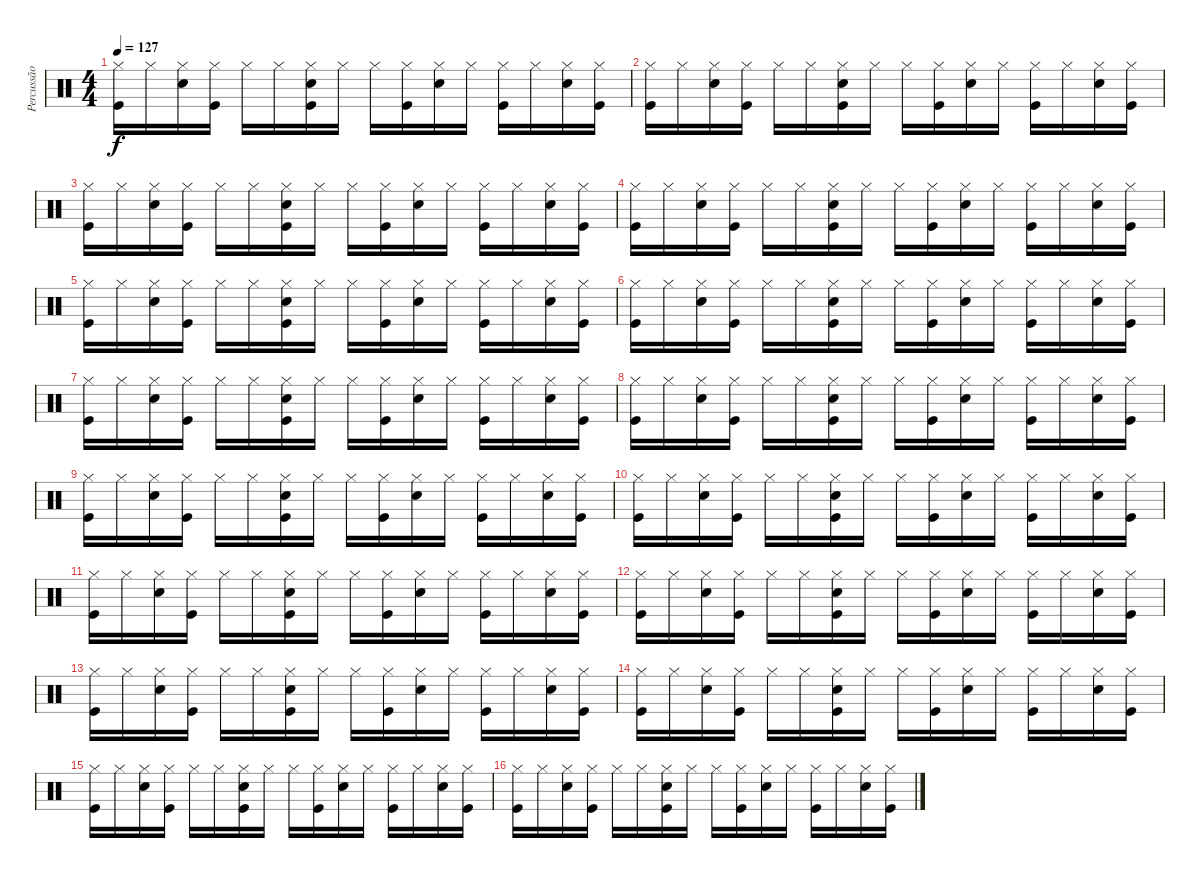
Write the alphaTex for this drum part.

\track ("Percussão" "Percussão") {instrument percussion}
\staff {score}
\articulation defaults
\ts (4 4)
\tempo 127
\clef neutral
\ks c
("Kick (hit)" "Hi-Hat (closed)").16{dy f} "Hi-Hat (closed)".16 ("Hi-Hat (closed)" "Snare (hit) 2").16 ("Kick (hit)" "Hi-Hat (closed)").16 "Hi-Hat (closed)".16 "Hi-Hat (closed)".16 ("Kick (hit)" "Hi-Hat (closed)" "Snare (hit) 2").16 "Hi-Hat (closed)".16 "Hi-Hat (closed)".16 ("Kick (hit)" "Hi-Hat (closed)").16 ("Hi-Hat (closed)" "Snare (hit) 2").16 "Hi-Hat (closed)".16 ("Kick (hit)" "Hi-Hat (closed)").16 "Hi-Hat (closed)".16 ("Hi-Hat (closed)" "Snare (hit) 2").16 ("Kick (hit)" "Hi-Hat (closed)").16 |
("Kick (hit)" "Hi-Hat (closed)").16 "Hi-Hat (closed)".16 ("Hi-Hat (closed)" "Snare (hit) 2").16 ("Kick (hit)" "Hi-Hat (closed)").16 "Hi-Hat (closed)".16 "Hi-Hat (closed)".16 ("Kick (hit)" "Hi-Hat (closed)" "Snare (hit) 2").16 "Hi-Hat (closed)".16 "Hi-Hat (closed)".16 ("Kick (hit)" "Hi-Hat (closed)").16 ("Hi-Hat (closed)" "Snare (hit) 2").16 "Hi-Hat (closed)".16 ("Kick (hit)" "Hi-Hat (closed)").16 "Hi-Hat (closed)".16 ("Hi-Hat (closed)" "Snare (hit) 2").16 ("Kick (hit)" "Hi-Hat (closed)").16 |
("Kick (hit)" "Hi-Hat (closed)").16 "Hi-Hat (closed)".16 ("Hi-Hat (closed)" "Snare (hit) 2").16 ("Kick (hit)" "Hi-Hat (closed)").16 "Hi-Hat (closed)".16 "Hi-Hat (closed)".16 ("Kick (hit)" "Hi-Hat (closed)" "Snare (hit) 2").16 "Hi-Hat (closed)".16 "Hi-Hat (closed)".16 ("Kick (hit)" "Hi-Hat (closed)").16 ("Hi-Hat (closed)" "Snare (hit) 2").16 "Hi-Hat (closed)".16 ("Kick (hit)" "Hi-Hat (closed)").16 "Hi-Hat (closed)".16 ("Hi-Hat (closed)" "Snare (hit) 2").16 ("Kick (hit)" "Hi-Hat (closed)").16 |
("Kick (hit)" "Hi-Hat (closed)").16 "Hi-Hat (closed)".16 ("Hi-Hat (closed)" "Snare (hit) 2").16 ("Kick (hit)" "Hi-Hat (closed)").16 "Hi-Hat (closed)".16 "Hi-Hat (closed)".16 ("Kick (hit)" "Hi-Hat (closed)" "Snare (hit) 2").16 "Hi-Hat (closed)".16 "Hi-Hat (closed)".16 ("Kick (hit)" "Hi-Hat (closed)").16 ("Hi-Hat (closed)" "Snare (hit) 2").16 "Hi-Hat (closed)".16 ("Kick (hit)" "Hi-Hat (closed)").16 "Hi-Hat (closed)".16 ("Hi-Hat (closed)" "Snare (hit) 2").16 ("Kick (hit)" "Hi-Hat (closed)").16 |
("Kick (hit)" "Hi-Hat (closed)").16 "Hi-Hat (closed)".16 ("Hi-Hat (closed)" "Snare (hit) 2").16 ("Kick (hit)" "Hi-Hat (closed)").16 "Hi-Hat (closed)".16 "Hi-Hat (closed)".16 ("Kick (hit)" "Hi-Hat (closed)" "Snare (hit) 2").16 "Hi-Hat (closed)".16 "Hi-Hat (closed)".16 ("Kick (hit)" "Hi-Hat (closed)").16 ("Hi-Hat (closed)" "Snare (hit) 2").16 "Hi-Hat (closed)".16 ("Kick (hit)" "Hi-Hat (closed)").16 "Hi-Hat (closed)".16 ("Hi-Hat (closed)" "Snare (hit) 2").16 ("Kick (hit)" "Hi-Hat (closed)").16 |
("Kick (hit)" "Hi-Hat (closed)").16 "Hi-Hat (closed)".16 ("Hi-Hat (closed)" "Snare (hit) 2").16 ("Kick (hit)" "Hi-Hat (closed)").16 "Hi-Hat (closed)".16 "Hi-Hat (closed)".16 ("Kick (hit)" "Hi-Hat (closed)" "Snare (hit) 2").16 "Hi-Hat (closed)".16 "Hi-Hat (closed)".16 ("Kick (hit)" "Hi-Hat (closed)").16 ("Hi-Hat (closed)" "Snare (hit) 2").16 "Hi-Hat (closed)".16 ("Kick (hit)" "Hi-Hat (closed)").16 "Hi-Hat (closed)".16 ("Hi-Hat (closed)" "Snare (hit) 2").16 ("Kick (hit)" "Hi-Hat (closed)").16 |
("Kick (hit)" "Hi-Hat (closed)").16 "Hi-Hat (closed)".16 ("Hi-Hat (closed)" "Snare (hit) 2").16 ("Kick (hit)" "Hi-Hat (closed)").16 "Hi-Hat (closed)".16 "Hi-Hat (closed)".16 ("Kick (hit)" "Hi-Hat (closed)" "Snare (hit) 2").16 "Hi-Hat (closed)".16 "Hi-Hat (closed)".16 ("Kick (hit)" "Hi-Hat (closed)").16 ("Hi-Hat (closed)" "Snare (hit) 2").16 "Hi-Hat (closed)".16 ("Kick (hit)" "Hi-Hat (closed)").16 "Hi-Hat (closed)".16 ("Hi-Hat (closed)" "Snare (hit) 2").16 ("Kick (hit)" "Hi-Hat (closed)").16 |
("Kick (hit)" "Hi-Hat (closed)").16 "Hi-Hat (closed)".16 ("Hi-Hat (closed)" "Snare (hit) 2").16 ("Kick (hit)" "Hi-Hat (closed)").16 "Hi-Hat (closed)".16 "Hi-Hat (closed)".16 ("Kick (hit)" "Hi-Hat (closed)" "Snare (hit) 2").16 "Hi-Hat (closed)".16 "Hi-Hat (closed)".16 ("Kick (hit)" "Hi-Hat (closed)").16 ("Hi-Hat (closed)" "Snare (hit) 2").16 "Hi-Hat (closed)".16 ("Kick (hit)" "Hi-Hat (closed)").16 "Hi-Hat (closed)".16 ("Hi-Hat (closed)" "Snare (hit) 2").16 ("Kick (hit)" "Hi-Hat (closed)").16 |
("Kick (hit)" "Hi-Hat (closed)").16 "Hi-Hat (closed)".16 ("Hi-Hat (closed)" "Snare (hit) 2").16 ("Kick (hit)" "Hi-Hat (closed)").16 "Hi-Hat (closed)".16 "Hi-Hat (closed)".16 ("Kick (hit)" "Hi-Hat (closed)" "Snare (hit) 2").16 "Hi-Hat (closed)".16 "Hi-Hat (closed)".16 ("Kick (hit)" "Hi-Hat (closed)").16 ("Hi-Hat (closed)" "Snare (hit) 2").16 "Hi-Hat (closed)".16 ("Kick (hit)" "Hi-Hat (closed)").16 "Hi-Hat (closed)".16 ("Hi-Hat (closed)" "Snare (hit) 2").16 ("Kick (hit)" "Hi-Hat (closed)").16 |
("Kick (hit)" "Hi-Hat (closed)").16 "Hi-Hat (closed)".16 ("Hi-Hat (closed)" "Snare (hit) 2").16 ("Kick (hit)" "Hi-Hat (closed)").16 "Hi-Hat (closed)".16 "Hi-Hat (closed)".16 ("Kick (hit)" "Hi-Hat (closed)" "Snare (hit) 2").16 "Hi-Hat (closed)".16 "Hi-Hat (closed)".16 ("Kick (hit)" "Hi-Hat (closed)").16 ("Hi-Hat (closed)" "Snare (hit) 2").16 "Hi-Hat (closed)".16 ("Kick (hit)" "Hi-Hat (closed)").16 "Hi-Hat (closed)".16 ("Hi-Hat (closed)" "Snare (hit) 2").16 ("Kick (hit)" "Hi-Hat (closed)").16 |
("Kick (hit)" "Hi-Hat (closed)").16 "Hi-Hat (closed)".16 ("Hi-Hat (closed)" "Snare (hit) 2").16 ("Kick (hit)" "Hi-Hat (closed)").16 "Hi-Hat (closed)".16 "Hi-Hat (closed)".16 ("Kick (hit)" "Hi-Hat (closed)" "Snare (hit) 2").16 "Hi-Hat (closed)".16 "Hi-Hat (closed)".16 ("Kick (hit)" "Hi-Hat (closed)").16 ("Hi-Hat (closed)" "Snare (hit) 2").16 "Hi-Hat (closed)".16 ("Kick (hit)" "Hi-Hat (closed)").16 "Hi-Hat (closed)".16 ("Hi-Hat (closed)" "Snare (hit) 2").16 ("Kick (hit)" "Hi-Hat (closed)").16 |
("Kick (hit)" "Hi-Hat (closed)").16 "Hi-Hat (closed)".16 ("Hi-Hat (closed)" "Snare (hit) 2").16 ("Kick (hit)" "Hi-Hat (closed)").16 "Hi-Hat (closed)".16 "Hi-Hat (closed)".16 ("Kick (hit)" "Hi-Hat (closed)" "Snare (hit) 2").16 "Hi-Hat (closed)".16 "Hi-Hat (closed)".16 ("Kick (hit)" "Hi-Hat (closed)").16 ("Hi-Hat (closed)" "Snare (hit) 2").16 "Hi-Hat (closed)".16 ("Kick (hit)" "Hi-Hat (closed)").16 "Hi-Hat (closed)".16 ("Hi-Hat (closed)" "Snare (hit) 2").16 ("Kick (hit)" "Hi-Hat (closed)").16 |
("Kick (hit)" "Hi-Hat (closed)").16 "Hi-Hat (closed)".16 ("Hi-Hat (closed)" "Snare (hit) 2").16 ("Kick (hit)" "Hi-Hat (closed)").16 "Hi-Hat (closed)".16 "Hi-Hat (closed)".16 ("Kick (hit)" "Hi-Hat (closed)" "Snare (hit) 2").16 "Hi-Hat (closed)".16 "Hi-Hat (closed)".16 ("Kick (hit)" "Hi-Hat (closed)").16 ("Hi-Hat (closed)" "Snare (hit) 2").16 "Hi-Hat (closed)".16 ("Kick (hit)" "Hi-Hat (closed)").16 "Hi-Hat (closed)".16 ("Hi-Hat (closed)" "Snare (hit) 2").16 ("Kick (hit)" "Hi-Hat (closed)").16 |
("Kick (hit)" "Hi-Hat (closed)").16 "Hi-Hat (closed)".16 ("Hi-Hat (closed)" "Snare (hit) 2").16 ("Kick (hit)" "Hi-Hat (closed)").16 "Hi-Hat (closed)".16 "Hi-Hat (closed)".16 ("Kick (hit)" "Hi-Hat (closed)" "Snare (hit) 2").16 "Hi-Hat (closed)".16 "Hi-Hat (closed)".16 ("Kick (hit)" "Hi-Hat (closed)").16 ("Hi-Hat (closed)" "Snare (hit) 2").16 "Hi-Hat (closed)".16 ("Kick (hit)" "Hi-Hat (closed)").16 "Hi-Hat (closed)".16 ("Hi-Hat (closed)" "Snare (hit) 2").16 ("Kick (hit)" "Hi-Hat (closed)").16 |
("Kick (hit)" "Hi-Hat (closed)").16 "Hi-Hat (closed)".16 ("Hi-Hat (closed)" "Snare (hit) 2").16 ("Kick (hit)" "Hi-Hat (closed)").16 "Hi-Hat (closed)".16 "Hi-Hat (closed)".16 ("Kick (hit)" "Hi-Hat (closed)" "Snare (hit) 2").16 "Hi-Hat (closed)".16 "Hi-Hat (closed)".16 ("Kick (hit)" "Hi-Hat (closed)").16 ("Hi-Hat (closed)" "Snare (hit) 2").16 "Hi-Hat (closed)".16 ("Kick (hit)" "Hi-Hat (closed)").16 "Hi-Hat (closed)".16 ("Hi-Hat (closed)" "Snare (hit) 2").16 ("Kick (hit)" "Hi-Hat (closed)").16 |
("Kick (hit)" "Hi-Hat (closed)").16 "Hi-Hat (closed)".16 ("Hi-Hat (closed)" "Snare (hit) 2").16 ("Kick (hit)" "Hi-Hat (closed)").16 "Hi-Hat (closed)".16 "Hi-Hat (closed)".16 ("Kick (hit)" "Hi-Hat (closed)" "Snare (hit) 2").16 "Hi-Hat (closed)".16 "Hi-Hat (closed)".16 ("Kick (hit)" "Hi-Hat (closed)").16 ("Hi-Hat (closed)" "Snare (hit) 2").16 "Hi-Hat (closed)".16 ("Kick (hit)" "Hi-Hat (closed)").16 "Hi-Hat (closed)".16 ("Hi-Hat (closed)" "Snare (hit) 2").16 ("Kick (hit)" "Hi-Hat (closed)").16
